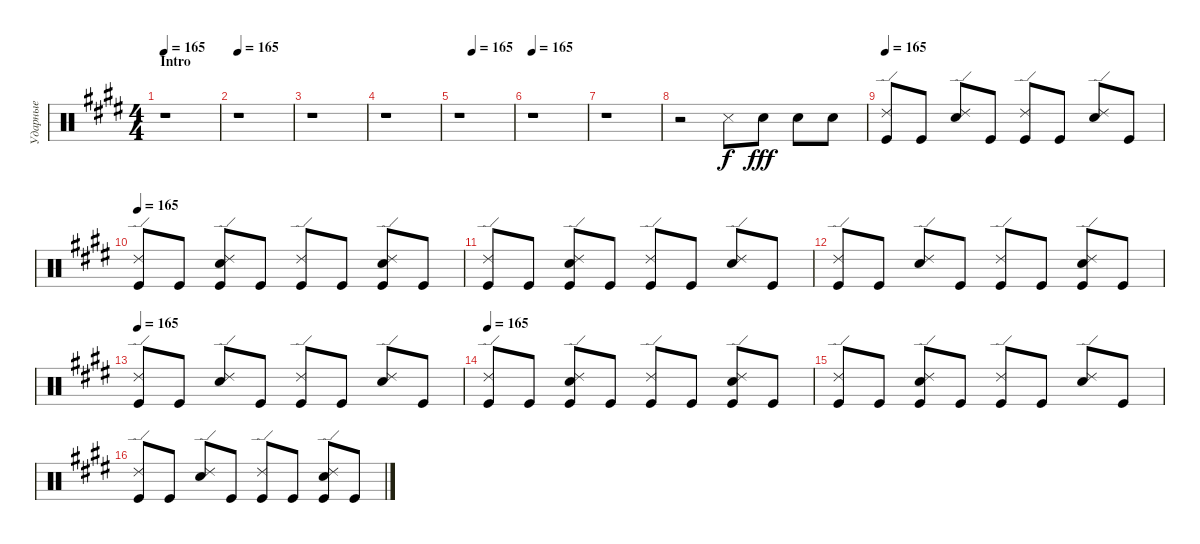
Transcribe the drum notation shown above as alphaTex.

\track ("Ударные" "Ударные") {instrument percussion}
\staff {score}
\articulation defaults
\ts (4 4)
\section ("" "Intro")
\tempo 165
\clef neutral
\ks e
r.1{dy f} |
\tempo 165
r.1 |
r.1 |
r.1 |
\tempo (165 0.25)
r.1 |
\tempo 165
r.1 |
r.1 |
r.2 "Snare (side stick) 3".8 "Snare (hit) 2".8{dy fff} "Snare (hit) 2".8 "Snare (hit) 2".8 |
\tempo 165
("Ride (edge) 2" "Kick (hit)").8 "Kick (hit)".8 ("Ride (edge) 2" "Snare (hit) 2").8 "Kick (hit)".8 ("Ride (edge) 2" "Kick (hit)").8 "Kick (hit)".8 ("Ride (edge) 2" "Snare (hit) 2").8 "Kick (hit)".8 |
\tempo 165
("Ride (edge) 2" "Kick (hit)").8 "Kick (hit)".8 ("Ride (edge) 2" "Snare (hit) 2" "Kick (hit)").8 "Kick (hit)".8 ("Ride (edge) 2" "Kick (hit)").8 "Kick (hit)".8 ("Ride (edge) 2" "Snare (hit) 2" "Kick (hit)").8 "Kick (hit)".8 |
("Ride (edge) 2" "Kick (hit)").8 "Kick (hit)".8 ("Ride (edge) 2" "Snare (hit) 2" "Kick (hit)").8 "Kick (hit)".8 ("Ride (edge) 2" "Kick (hit)").8 "Kick (hit)".8 ("Ride (edge) 2" "Snare (hit) 2").8 "Kick (hit)".8 |
("Ride (edge) 2" "Kick (hit)").8 "Kick (hit)".8 ("Ride (edge) 2" "Snare (hit) 2").8 "Kick (hit)".8 ("Ride (edge) 2" "Kick (hit)").8 "Kick (hit)".8 ("Ride (edge) 2" "Snare (hit) 2" "Kick (hit)").8 "Kick (hit)".8 |
\tempo 165
("Ride (edge) 2" "Kick (hit)").8 "Kick (hit)".8 ("Ride (edge) 2" "Snare (hit) 2").8 "Kick (hit)".8 ("Ride (edge) 2" "Kick (hit)").8 "Kick (hit)".8 ("Ride (edge) 2" "Snare (hit) 2").8 "Kick (hit)".8 |
\tempo 165
("Ride (edge) 2" "Kick (hit)").8 "Kick (hit)".8 ("Ride (edge) 2" "Snare (hit) 2" "Kick (hit)").8 "Kick (hit)".8 ("Ride (edge) 2" "Kick (hit)").8 "Kick (hit)".8 ("Ride (edge) 2" "Snare (hit) 2" "Kick (hit)").8 "Kick (hit)".8 |
("Ride (edge) 2" "Kick (hit)").8 "Kick (hit)".8 ("Ride (edge) 2" "Snare (hit) 2" "Kick (hit)").8 "Kick (hit)".8 ("Ride (edge) 2" "Kick (hit)").8 "Kick (hit)".8 ("Ride (edge) 2" "Snare (hit) 2").8 "Kick (hit)".8 |
("Ride (edge) 2" "Kick (hit)").8 "Kick (hit)".8 ("Ride (edge) 2" "Snare (hit) 2").8 "Kick (hit)".8 ("Ride (edge) 2" "Kick (hit)").8 "Kick (hit)".8 ("Ride (edge) 2" "Snare (hit) 2" "Kick (hit)").8 "Kick (hit)".8
